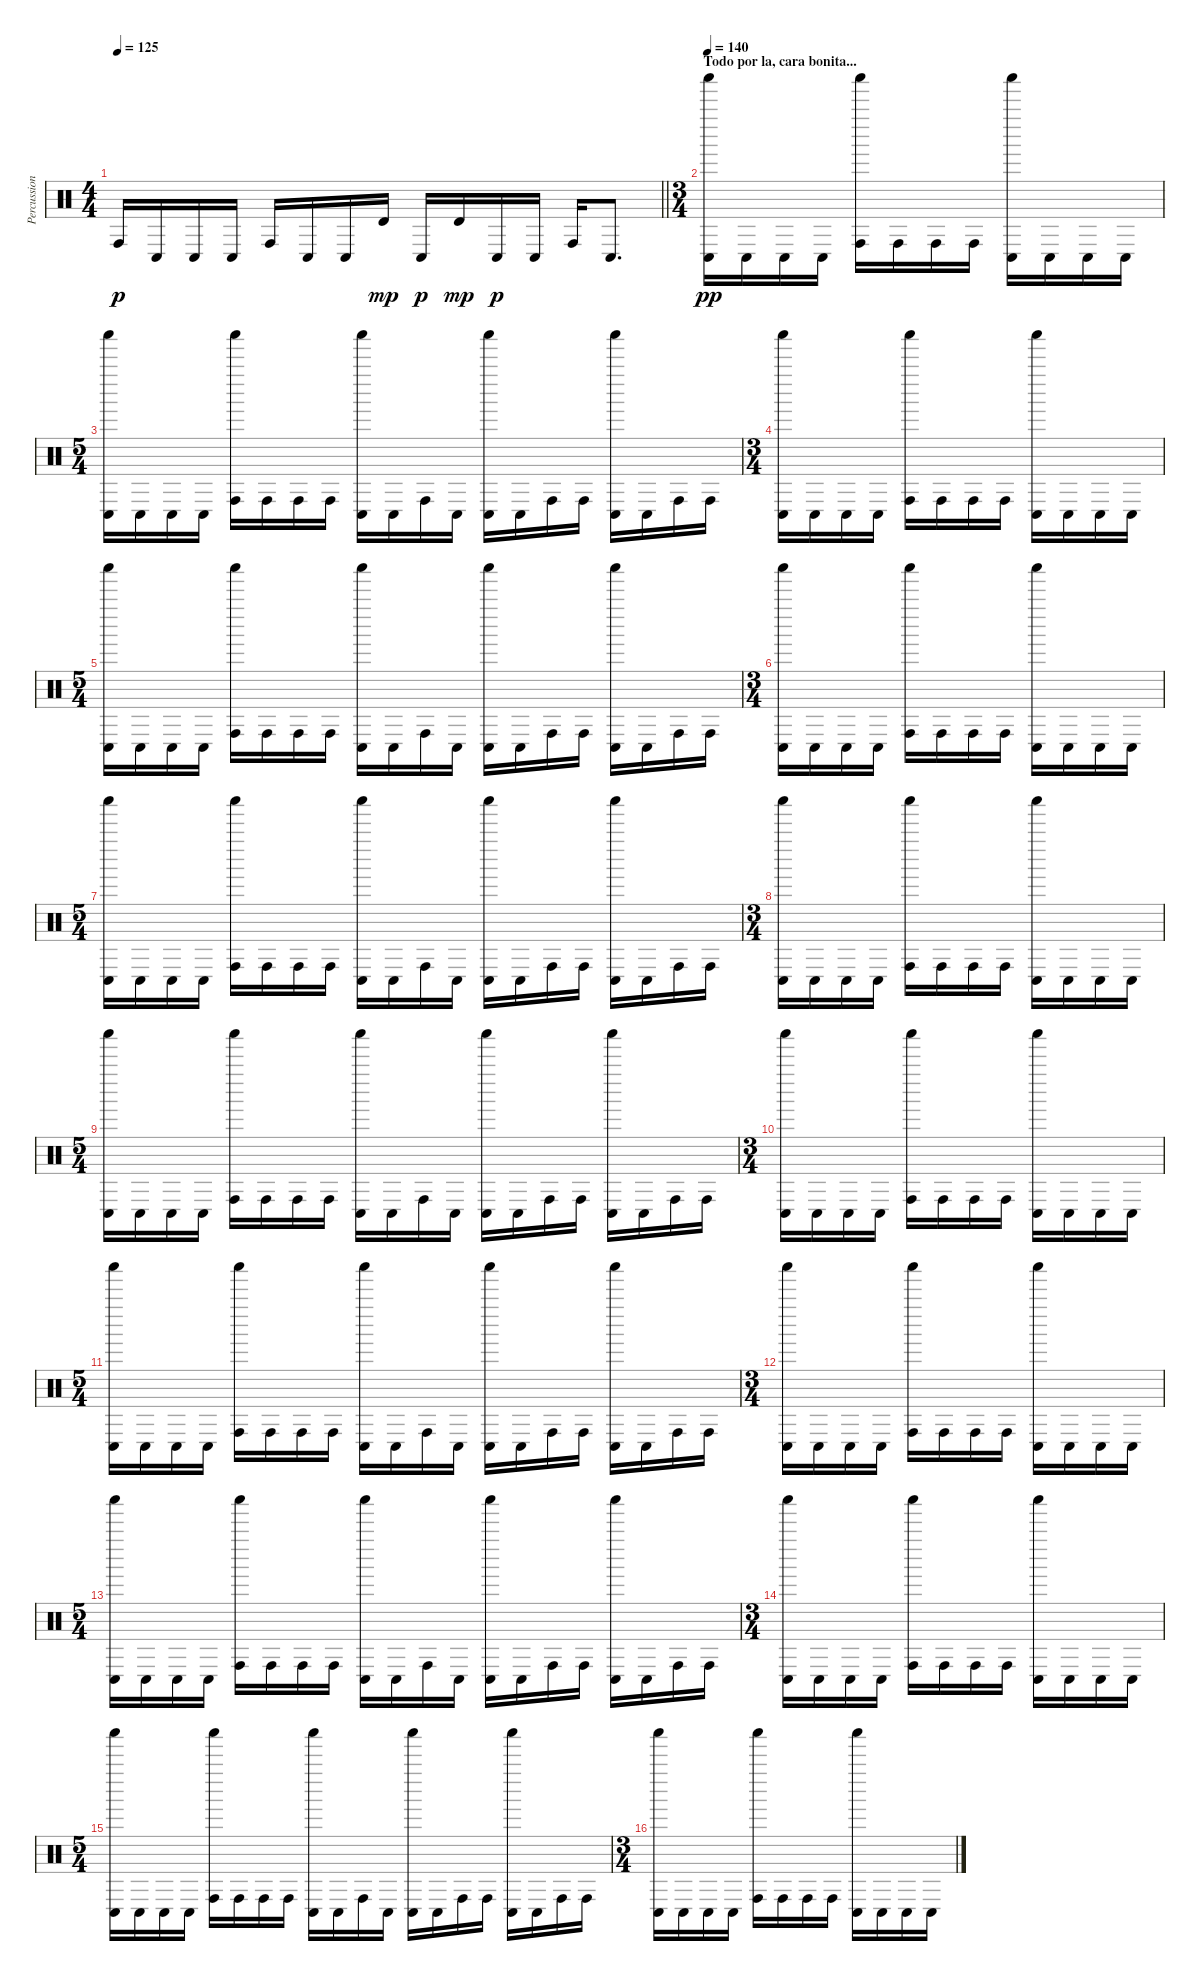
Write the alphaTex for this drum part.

\track ("Percussion" "Percussion") {instrument percussion}
\staff {score}
\articulation defaults
\ts (4 4)
\tempo 125
\clef neutral
\barLineRight lightlight
\ks c "Conga high (hit)".16{dy p} "Conga low (hit)".16 "Conga low (hit)".16 "Conga low (hit)".16 "Conga high (hit)".16 "Conga low (hit)".16 "Conga low (hit)".16 "Timbale high (hit)".16{dy mp} "Conga low (hit)".16{dy p} "Timbale high (hit)".16{dy mp} "Conga low (hit)".16{dy p} "Conga low (hit)".16 "Conga high (hit)".16 "Conga low (hit)".8{d}
|
\ts (3 4)
\section ("" "Todo por la, cara bonita...")
\tempo 140
("Shaker (hit)" "Conga low (hit)").16{dy pp} "Conga low (hit)".16 "Conga low (hit)".16 "Conga low (hit)".16 ("Shaker (hit)" "Conga high (hit)").16 "Conga high (hit)".16 "Conga high (hit)".16 "Conga high (hit)".16 ("Shaker (hit)" "Conga low (hit)").16 "Conga low (hit)".16 "Conga low (hit)".16 "Conga low (hit)".16 |
\ts (5 4)
("Shaker (hit)" "Conga low (hit)").16 "Conga low (hit)".16 "Conga low (hit)".16 "Conga low (hit)".16 ("Shaker (hit)" "Conga high (hit)").16 "Conga high (hit)".16 "Conga high (hit)".16 "Conga high (hit)".16 ("Shaker (hit)" "Conga low (hit)").16 "Conga low (hit)".16 "Conga high (hit)".16 "Conga low (hit)".16 ("Shaker (hit)" "Conga low (hit)").16 "Conga low (hit)".16 "Conga high (hit)".16 "Conga high (hit)".16 ("Shaker (hit)" "Conga low (hit)").16 "Conga low (hit)".16 "Conga high (hit)".16 "Conga high (hit)".16 |
\ts (3 4)
("Shaker (hit)" "Conga low (hit)").16 "Conga low (hit)".16 "Conga low (hit)".16 "Conga low (hit)".16 ("Shaker (hit)" "Conga high (hit)").16 "Conga high (hit)".16 "Conga high (hit)".16 "Conga high (hit)".16 ("Shaker (hit)" "Conga low (hit)").16 "Conga low (hit)".16 "Conga low (hit)".16 "Conga low (hit)".16 |
\ts (5 4)
("Shaker (hit)" "Conga low (hit)").16 "Conga low (hit)".16 "Conga low (hit)".16 "Conga low (hit)".16 ("Shaker (hit)" "Conga high (hit)").16 "Conga high (hit)".16 "Conga high (hit)".16 "Conga high (hit)".16 ("Shaker (hit)" "Conga low (hit)").16 "Conga low (hit)".16 "Conga high (hit)".16 "Conga low (hit)".16 ("Shaker (hit)" "Conga low (hit)").16 "Conga low (hit)".16 "Conga high (hit)".16 "Conga high (hit)".16 ("Shaker (hit)" "Conga low (hit)").16 "Conga low (hit)".16 "Conga high (hit)".16 "Conga high (hit)".16 |
\ts (3 4)
("Shaker (hit)" "Conga low (hit)").16 "Conga low (hit)".16 "Conga low (hit)".16 "Conga low (hit)".16 ("Shaker (hit)" "Conga high (hit)").16 "Conga high (hit)".16 "Conga high (hit)".16 "Conga high (hit)".16 ("Shaker (hit)" "Conga low (hit)").16 "Conga low (hit)".16 "Conga low (hit)".16 "Conga low (hit)".16 |
\ts (5 4)
("Shaker (hit)" "Conga low (hit)").16 "Conga low (hit)".16 "Conga low (hit)".16 "Conga low (hit)".16 ("Shaker (hit)" "Conga high (hit)").16 "Conga high (hit)".16 "Conga high (hit)".16 "Conga high (hit)".16 ("Shaker (hit)" "Conga low (hit)").16 "Conga low (hit)".16 "Conga high (hit)".16 "Conga low (hit)".16 ("Shaker (hit)" "Conga low (hit)").16 "Conga low (hit)".16 "Conga high (hit)".16 "Conga high (hit)".16 ("Shaker (hit)" "Conga low (hit)").16 "Conga low (hit)".16 "Conga high (hit)".16 "Conga high (hit)".16 |
\ts (3 4)
("Shaker (hit)" "Conga low (hit)").16 "Conga low (hit)".16 "Conga low (hit)".16 "Conga low (hit)".16 ("Shaker (hit)" "Conga high (hit)").16 "Conga high (hit)".16 "Conga high (hit)".16 "Conga high (hit)".16 ("Shaker (hit)" "Conga low (hit)").16 "Conga low (hit)".16 "Conga low (hit)".16 "Conga low (hit)".16 |
\ts (5 4)
("Shaker (hit)" "Conga low (hit)").16 "Conga low (hit)".16 "Conga low (hit)".16 "Conga low (hit)".16 ("Shaker (hit)" "Conga high (hit)").16 "Conga high (hit)".16 "Conga high (hit)".16 "Conga high (hit)".16 ("Shaker (hit)" "Conga low (hit)").16 "Conga low (hit)".16 "Conga high (hit)".16 "Conga low (hit)".16 ("Shaker (hit)" "Conga low (hit)").16 "Conga low (hit)".16 "Conga high (hit)".16 "Conga high (hit)".16 ("Shaker (hit)" "Conga low (hit)").16 "Conga low (hit)".16 "Conga high (hit)".16 "Conga high (hit)".16 |
\ts (3 4)
("Shaker (hit)" "Conga low (hit)").16 "Conga low (hit)".16 "Conga low (hit)".16 "Conga low (hit)".16 ("Shaker (hit)" "Conga high (hit)").16 "Conga high (hit)".16 "Conga high (hit)".16 "Conga high (hit)".16 ("Shaker (hit)" "Conga low (hit)").16 "Conga low (hit)".16 "Conga low (hit)".16 "Conga low (hit)".16 |
\ts (5 4)
("Shaker (hit)" "Conga low (hit)").16 "Conga low (hit)".16 "Conga low (hit)".16 "Conga low (hit)".16 ("Shaker (hit)" "Conga high (hit)").16 "Conga high (hit)".16 "Conga high (hit)".16 "Conga high (hit)".16 ("Shaker (hit)" "Conga low (hit)").16 "Conga low (hit)".16 "Conga high (hit)".16 "Conga low (hit)".16 ("Shaker (hit)" "Conga low (hit)").16 "Conga low (hit)".16 "Conga high (hit)".16 "Conga high (hit)".16 ("Shaker (hit)" "Conga low (hit)").16 "Conga low (hit)".16 "Conga high (hit)".16 "Conga high (hit)".16 |
\ts (3 4)
("Shaker (hit)" "Conga low (hit)").16 "Conga low (hit)".16 "Conga low (hit)".16 "Conga low (hit)".16 ("Shaker (hit)" "Conga high (hit)").16 "Conga high (hit)".16 "Conga high (hit)".16 "Conga high (hit)".16 ("Shaker (hit)" "Conga low (hit)").16 "Conga low (hit)".16 "Conga low (hit)".16 "Conga low (hit)".16 |
\ts (5 4)
("Shaker (hit)" "Conga low (hit)").16 "Conga low (hit)".16 "Conga low (hit)".16 "Conga low (hit)".16 ("Shaker (hit)" "Conga high (hit)").16 "Conga high (hit)".16 "Conga high (hit)".16 "Conga high (hit)".16 ("Shaker (hit)" "Conga low (hit)").16 "Conga low (hit)".16 "Conga high (hit)".16 "Conga low (hit)".16 ("Shaker (hit)" "Conga low (hit)").16 "Conga low (hit)".16 "Conga high (hit)".16 "Conga high (hit)".16 ("Shaker (hit)" "Conga low (hit)").16 "Conga low (hit)".16 "Conga high (hit)".16 "Conga high (hit)".16 |
\ts (3 4)
("Shaker (hit)" "Conga low (hit)").16 "Conga low (hit)".16 "Conga low (hit)".16 "Conga low (hit)".16 ("Shaker (hit)" "Conga high (hit)").16 "Conga high (hit)".16 "Conga high (hit)".16 "Conga high (hit)".16 ("Shaker (hit)" "Conga low (hit)").16 "Conga low (hit)".16 "Conga low (hit)".16 "Conga low (hit)".16 |
\ts (5 4)
("Shaker (hit)" "Conga low (hit)").16 "Conga low (hit)".16 "Conga low (hit)".16 "Conga low (hit)".16 ("Shaker (hit)" "Conga high (hit)").16 "Conga high (hit)".16 "Conga high (hit)".16 "Conga high (hit)".16 ("Shaker (hit)" "Conga low (hit)").16 "Conga low (hit)".16 "Conga high (hit)".16 "Conga low (hit)".16 ("Shaker (hit)" "Conga low (hit)").16 "Conga low (hit)".16 "Conga high (hit)".16 "Conga high (hit)".16 ("Shaker (hit)" "Conga low (hit)").16 "Conga low (hit)".16 "Conga high (hit)".16 "Conga high (hit)".16 |
\ts (3 4)
("Shaker (hit)" "Conga low (hit)").16 "Conga low (hit)".16 "Conga low (hit)".16 "Conga low (hit)".16 ("Shaker (hit)" "Conga high (hit)").16 "Conga high (hit)".16 "Conga high (hit)".16 "Conga high (hit)".16 ("Shaker (hit)" "Conga low (hit)").16 "Conga low (hit)".16 "Conga low (hit)".16 "Conga low (hit)".16
